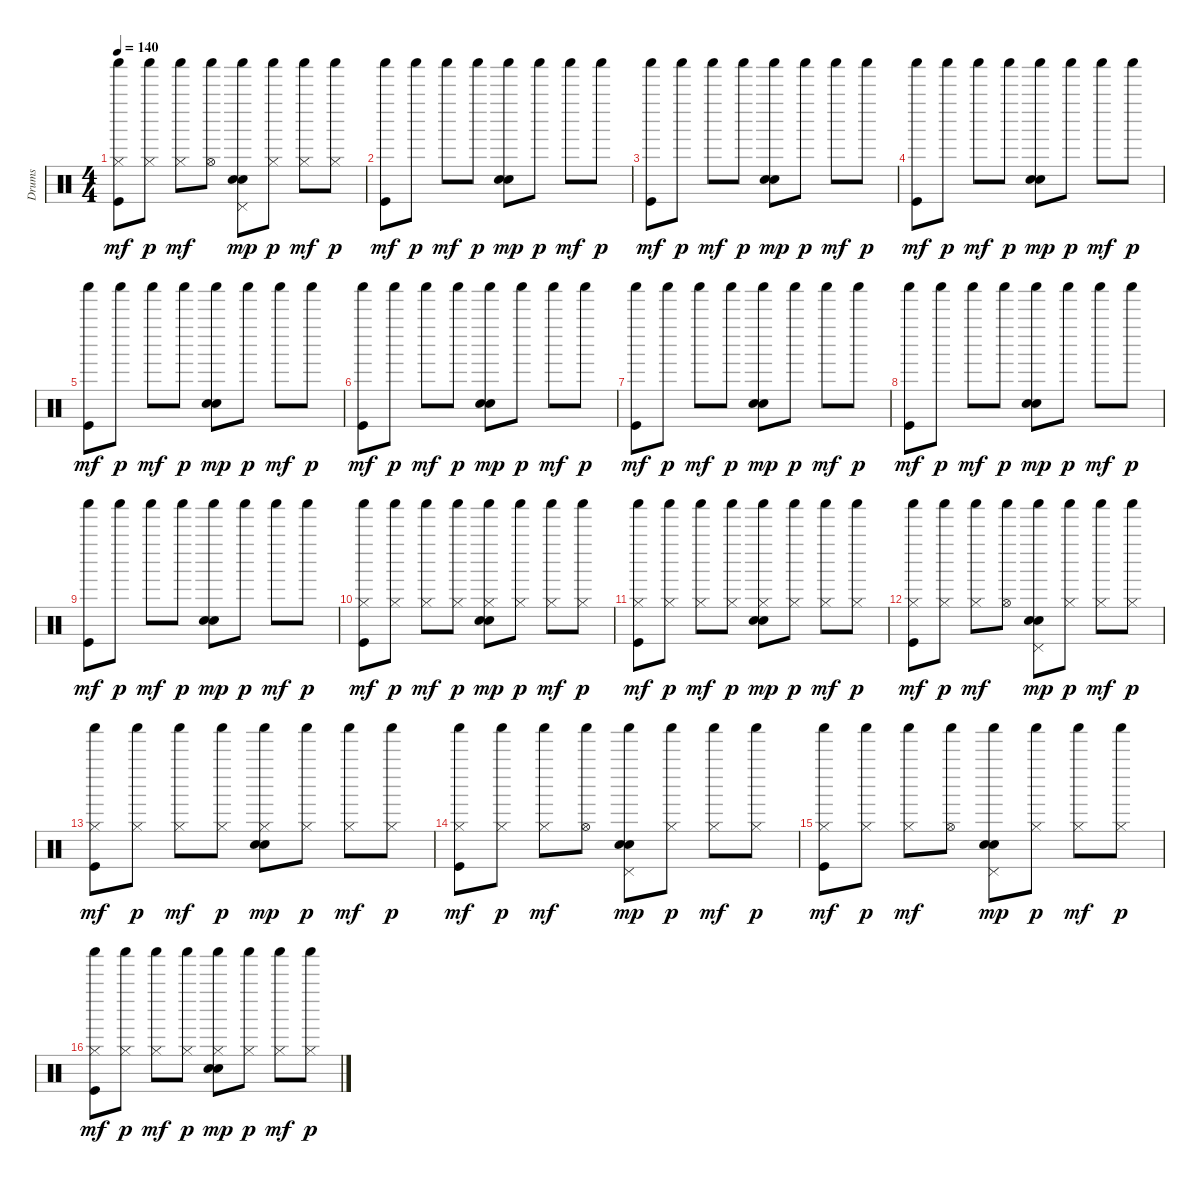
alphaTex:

\track ("Drums" "Drums") {instrument percussion}
\staff {score}
\articulation defaults
\ts (4 4)
\tempo 140
\clef neutral
\ks c
("Shaker (hit)" "Hi-Hat (closed)" "Kick (hit)").8{dy mf} ("Shaker (hit)" "Hi-Hat (closed)").8{dy p} ("Shaker (hit)" "Hi-Hat (closed)").8{dy mf} ("Shaker (hit)" "Hi-Hat (open)").8 ("Shaker (hit)" "Pedal Hi-Hat (hit)" "Hand Clap (hit)" "Snare (hit) 2").8{dy mp} ("Shaker (hit)" "Hi-Hat (closed)").8{dy p} ("Shaker (hit)" "Hi-Hat (closed)").8{dy mf} ("Shaker (hit)" "Hi-Hat (closed)").8{dy p} |
("Shaker (hit)" "Kick (hit)").8{dy mf} "Shaker (hit)".8{dy p} "Shaker (hit)".8{dy mf} "Shaker (hit)".8{dy p} ("Shaker (hit)" "Hand Clap (hit)" "Snare (hit) 2").8{dy mp} "Shaker (hit)".8{dy p} "Shaker (hit)".8{dy mf} "Shaker (hit)".8{dy p} |
("Shaker (hit)" "Kick (hit)").8{dy mf} "Shaker (hit)".8{dy p} "Shaker (hit)".8{dy mf} "Shaker (hit)".8{dy p} ("Shaker (hit)" "Hand Clap (hit)" "Snare (hit) 2").8{dy mp} "Shaker (hit)".8{dy p} "Shaker (hit)".8{dy mf} "Shaker (hit)".8{dy p} |
("Shaker (hit)" "Kick (hit)").8{dy mf} "Shaker (hit)".8{dy p} "Shaker (hit)".8{dy mf} "Shaker (hit)".8{dy p} ("Shaker (hit)" "Hand Clap (hit)" "Snare (hit) 2").8{dy mp} "Shaker (hit)".8{dy p} "Shaker (hit)".8{dy mf} "Shaker (hit)".8{dy p} |
("Shaker (hit)" "Kick (hit)").8{dy mf} "Shaker (hit)".8{dy p} "Shaker (hit)".8{dy mf} "Shaker (hit)".8{dy p} ("Shaker (hit)" "Hand Clap (hit)" "Snare (hit) 2").8{dy mp} "Shaker (hit)".8{dy p} "Shaker (hit)".8{dy mf} "Shaker (hit)".8{dy p} |
("Shaker (hit)" "Kick (hit)").8{dy mf} "Shaker (hit)".8{dy p} "Shaker (hit)".8{dy mf} "Shaker (hit)".8{dy p} ("Shaker (hit)" "Hand Clap (hit)" "Snare (hit) 2").8{dy mp} "Shaker (hit)".8{dy p} "Shaker (hit)".8{dy mf} "Shaker (hit)".8{dy p} |
("Shaker (hit)" "Kick (hit)").8{dy mf} "Shaker (hit)".8{dy p} "Shaker (hit)".8{dy mf} "Shaker (hit)".8{dy p} ("Shaker (hit)" "Hand Clap (hit)" "Snare (hit) 2").8{dy mp} "Shaker (hit)".8{dy p} "Shaker (hit)".8{dy mf} "Shaker (hit)".8{dy p} |
("Shaker (hit)" "Kick (hit)").8{dy mf} "Shaker (hit)".8{dy p} "Shaker (hit)".8{dy mf} "Shaker (hit)".8{dy p} ("Shaker (hit)" "Hand Clap (hit)" "Snare (hit) 2").8{dy mp} "Shaker (hit)".8{dy p} "Shaker (hit)".8{dy mf} "Shaker (hit)".8{dy p} |
("Shaker (hit)" "Kick (hit)").8{dy mf} "Shaker (hit)".8{dy p} "Shaker (hit)".8{dy mf} "Shaker (hit)".8{dy p} ("Shaker (hit)" "Hand Clap (hit)" "Snare (hit) 2").8{dy mp} "Shaker (hit)".8{dy p} "Shaker (hit)".8{dy mf} "Shaker (hit)".8{dy p} |
("Shaker (hit)" "Hi-Hat (closed)" "Kick (hit)").8{dy mf} ("Shaker (hit)" "Hi-Hat (closed)").8{dy p} ("Shaker (hit)" "Hi-Hat (closed)").8{dy mf} ("Shaker (hit)" "Hi-Hat (closed)").8{dy p} ("Shaker (hit)" "Hi-Hat (closed)" "Hand Clap (hit)" "Snare (hit) 2").8{dy mp} ("Shaker (hit)" "Hi-Hat (closed)").8{dy p} ("Shaker (hit)" "Hi-Hat (closed)").8{dy mf} ("Shaker (hit)" "Hi-Hat (closed)").8{dy p} |
("Shaker (hit)" "Hi-Hat (closed)" "Kick (hit)").8{dy mf} ("Shaker (hit)" "Hi-Hat (closed)").8{dy p} ("Shaker (hit)" "Hi-Hat (closed)").8{dy mf} ("Shaker (hit)" "Hi-Hat (closed)").8{dy p} ("Shaker (hit)" "Hi-Hat (closed)" "Hand Clap (hit)" "Snare (hit) 2").8{dy mp} ("Shaker (hit)" "Hi-Hat (closed)").8{dy p} ("Shaker (hit)" "Hi-Hat (closed)").8{dy mf} ("Shaker (hit)" "Hi-Hat (closed)").8{dy p} |
("Shaker (hit)" "Hi-Hat (closed)" "Kick (hit)").8{dy mf} ("Shaker (hit)" "Hi-Hat (closed)").8{dy p} ("Shaker (hit)" "Hi-Hat (closed)").8{dy mf} ("Shaker (hit)" "Hi-Hat (open)").8 ("Shaker (hit)" "Pedal Hi-Hat (hit)" "Hand Clap (hit)" "Snare (hit) 2").8{dy mp} ("Shaker (hit)" "Hi-Hat (closed)").8{dy p} ("Shaker (hit)" "Hi-Hat (closed)").8{dy mf} ("Shaker (hit)" "Hi-Hat (closed)").8{dy p} |
("Shaker (hit)" "Hi-Hat (closed)" "Kick (hit)").8{dy mf} ("Shaker (hit)" "Hi-Hat (closed)").8{dy p} ("Shaker (hit)" "Hi-Hat (closed)").8{dy mf} ("Shaker (hit)" "Hi-Hat (closed)").8{dy p} ("Shaker (hit)" "Hi-Hat (closed)" "Hand Clap (hit)" "Snare (hit) 2").8{dy mp} ("Shaker (hit)" "Hi-Hat (closed)").8{dy p} ("Shaker (hit)" "Hi-Hat (closed)").8{dy mf} ("Shaker (hit)" "Hi-Hat (closed)").8{dy p} |
("Shaker (hit)" "Hi-Hat (closed)" "Kick (hit)").8{dy mf} ("Shaker (hit)" "Hi-Hat (closed)").8{dy p} ("Shaker (hit)" "Hi-Hat (closed)").8{dy mf} ("Shaker (hit)" "Hi-Hat (open)").8 ("Shaker (hit)" "Pedal Hi-Hat (hit)" "Hand Clap (hit)" "Snare (hit) 2").8{dy mp} ("Shaker (hit)" "Hi-Hat (closed)").8{dy p} ("Shaker (hit)" "Hi-Hat (closed)").8{dy mf} ("Shaker (hit)" "Hi-Hat (closed)").8{dy p} |
("Shaker (hit)" "Hi-Hat (closed)" "Kick (hit)").8{dy mf} ("Shaker (hit)" "Hi-Hat (closed)").8{dy p} ("Shaker (hit)" "Hi-Hat (closed)").8{dy mf} ("Shaker (hit)" "Hi-Hat (open)").8 ("Shaker (hit)" "Pedal Hi-Hat (hit)" "Hand Clap (hit)" "Snare (hit) 2").8{dy mp} ("Shaker (hit)" "Hi-Hat (closed)").8{dy p} ("Shaker (hit)" "Hi-Hat (closed)").8{dy mf} ("Shaker (hit)" "Hi-Hat (closed)").8{dy p} |
("Shaker (hit)" "Hi-Hat (closed)" "Kick (hit)").8{dy mf} ("Shaker (hit)" "Hi-Hat (closed)").8{dy p} ("Shaker (hit)" "Hi-Hat (closed)").8{dy mf} ("Shaker (hit)" "Hi-Hat (closed)").8{dy p} ("Shaker (hit)" "Hi-Hat (closed)" "Hand Clap (hit)" "Snare (hit) 2").8{dy mp} ("Shaker (hit)" "Hi-Hat (closed)").8{dy p} ("Shaker (hit)" "Hi-Hat (closed)").8{dy mf} ("Shaker (hit)" "Hi-Hat (closed)").8{dy p}
